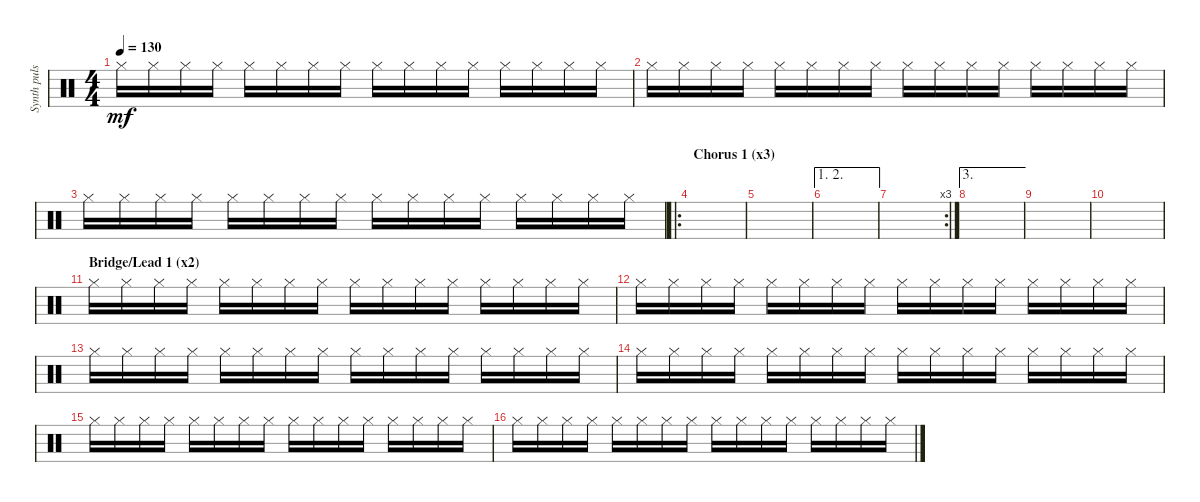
\track ("Synth pulse perc" "Synth puls") {instrument percussion}
\staff {score}
\articulation defaults
\ts (4 4)
\tempo 130
\clef neutral
\ks c "Hi-Hat (closed)".16{dy mf} "Hi-Hat (closed)".16 "Hi-Hat (closed)".16 "Hi-Hat (closed)".16 "Hi-Hat (closed)".16 "Hi-Hat (closed)".16 "Hi-Hat (closed)".16 "Hi-Hat (closed)".16 "Hi-Hat (closed)".16 "Hi-Hat (closed)".16 "Hi-Hat (closed)".16 "Hi-Hat (closed)".16 "Hi-Hat (closed)".16 "Hi-Hat (closed)".16 "Hi-Hat (closed)".16 "Hi-Hat (closed)".16
|
"Hi-Hat (closed)".16 "Hi-Hat (closed)".16 "Hi-Hat (closed)".16 "Hi-Hat (closed)".16 "Hi-Hat (closed)".16 "Hi-Hat (closed)".16 "Hi-Hat (closed)".16 "Hi-Hat (closed)".16 "Hi-Hat (closed)".16 "Hi-Hat (closed)".16 "Hi-Hat (closed)".16 "Hi-Hat (closed)".16 "Hi-Hat (closed)".16 "Hi-Hat (closed)".16 "Hi-Hat (closed)".16 "Hi-Hat (closed)".16 |
"Hi-Hat (closed)".16 "Hi-Hat (closed)".16 "Hi-Hat (closed)".16 "Hi-Hat (closed)".16 "Hi-Hat (closed)".16 "Hi-Hat (closed)".16 "Hi-Hat (closed)".16 "Hi-Hat (closed)".16 "Hi-Hat (closed)".16 "Hi-Hat (closed)".16 "Hi-Hat (closed)".16 "Hi-Hat (closed)".16 "Hi-Hat (closed)".16 "Hi-Hat (closed)".16 "Hi-Hat (closed)".16 "Hi-Hat (closed)".16 |
\ro
\section ("" "Chorus 1 (x3)")
|
|
\ae (1 2)
|
\rc 3
|
\ae 3
|
|
|
\section ("" "Bridge/Lead 1 (x2)")
"Hi-Hat (closed)".16 "Hi-Hat (closed)".16 "Hi-Hat (closed)".16 "Hi-Hat (closed)".16 "Hi-Hat (closed)".16 "Hi-Hat (closed)".16 "Hi-Hat (closed)".16 "Hi-Hat (closed)".16 "Hi-Hat (closed)".16 "Hi-Hat (closed)".16 "Hi-Hat (closed)".16 "Hi-Hat (closed)".16 "Hi-Hat (closed)".16 "Hi-Hat (closed)".16 "Hi-Hat (closed)".16 "Hi-Hat (closed)".16 |
"Hi-Hat (closed)".16 "Hi-Hat (closed)".16 "Hi-Hat (closed)".16 "Hi-Hat (closed)".16 "Hi-Hat (closed)".16 "Hi-Hat (closed)".16 "Hi-Hat (closed)".16 "Hi-Hat (closed)".16 "Hi-Hat (closed)".16 "Hi-Hat (closed)".16 "Hi-Hat (closed)".16 "Hi-Hat (closed)".16 "Hi-Hat (closed)".16 "Hi-Hat (closed)".16 "Hi-Hat (closed)".16 "Hi-Hat (closed)".16 |
"Hi-Hat (closed)".16 "Hi-Hat (closed)".16 "Hi-Hat (closed)".16 "Hi-Hat (closed)".16 "Hi-Hat (closed)".16 "Hi-Hat (closed)".16 "Hi-Hat (closed)".16 "Hi-Hat (closed)".16 "Hi-Hat (closed)".16 "Hi-Hat (closed)".16 "Hi-Hat (closed)".16 "Hi-Hat (closed)".16 "Hi-Hat (closed)".16 "Hi-Hat (closed)".16 "Hi-Hat (closed)".16 "Hi-Hat (closed)".16 |
"Hi-Hat (closed)".16 "Hi-Hat (closed)".16 "Hi-Hat (closed)".16 "Hi-Hat (closed)".16 "Hi-Hat (closed)".16 "Hi-Hat (closed)".16 "Hi-Hat (closed)".16 "Hi-Hat (closed)".16 "Hi-Hat (closed)".16 "Hi-Hat (closed)".16 "Hi-Hat (closed)".16 "Hi-Hat (closed)".16 "Hi-Hat (closed)".16 "Hi-Hat (closed)".16 "Hi-Hat (closed)".16 "Hi-Hat (closed)".16 |
"Hi-Hat (closed)".16 "Hi-Hat (closed)".16 "Hi-Hat (closed)".16 "Hi-Hat (closed)".16 "Hi-Hat (closed)".16 "Hi-Hat (closed)".16 "Hi-Hat (closed)".16 "Hi-Hat (closed)".16 "Hi-Hat (closed)".16 "Hi-Hat (closed)".16 "Hi-Hat (closed)".16 "Hi-Hat (closed)".16 "Hi-Hat (closed)".16 "Hi-Hat (closed)".16 "Hi-Hat (closed)".16 "Hi-Hat (closed)".16 |
"Hi-Hat (closed)".16 "Hi-Hat (closed)".16 "Hi-Hat (closed)".16 "Hi-Hat (closed)".16 "Hi-Hat (closed)".16 "Hi-Hat (closed)".16 "Hi-Hat (closed)".16 "Hi-Hat (closed)".16 "Hi-Hat (closed)".16 "Hi-Hat (closed)".16 "Hi-Hat (closed)".16 "Hi-Hat (closed)".16 "Hi-Hat (closed)".16 "Hi-Hat (closed)".16 "Hi-Hat (closed)".16 "Hi-Hat (closed)".16
